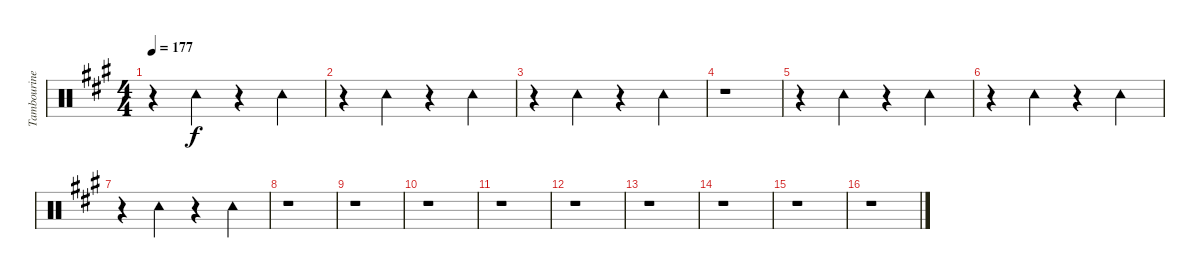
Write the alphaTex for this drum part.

\track ("Tambourine" "Tambourine") {instrument percussion}
\staff {score}
\articulation defaults
\ts (4 4)
\tempo 177
\clef neutral
\ks a
r.4{dy f} "Tambourine (hit)".4 r.4 "Tambourine (hit)".4 |
r.4 "Tambourine (hit)".4 r.4 "Tambourine (hit)".4 |
r.4 "Tambourine (hit)".4 r.4 "Tambourine (hit)".4 |
r.1 |
r.4 "Tambourine (hit)".4 r.4 "Tambourine (hit)".4 |
r.4 "Tambourine (hit)".4 r.4 "Tambourine (hit)".4 |
r.4 "Tambourine (hit)".4 r.4 "Tambourine (hit)".4 |
r.1 |
r.1 |
r.1 |
r.1 |
r.1 |
r.1 |
r.1 |
r.1 |
r.1
